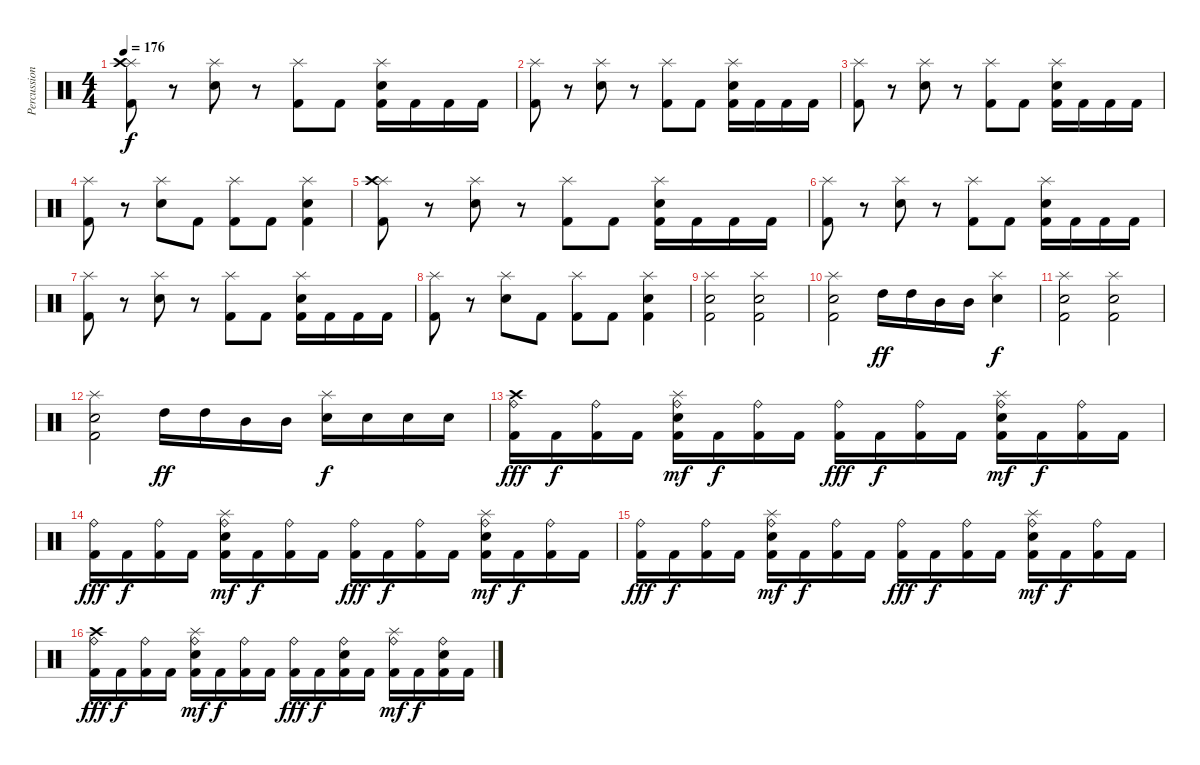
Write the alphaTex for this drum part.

\track ("Percussion" "Percussion") {instrument percussion}
\staff {score}
\articulation defaults
\ts (4 4)
\tempo 176
\clef neutral
\ks c
("Splash (hit)" "Crash high (hit)" "Kick (hit) 2").8{dy f} r.8 ("Splash (hit)" "Snare (hit) 2").8 r.8 ("Splash (hit)" "Kick (hit) 2").8 "Kick (hit) 2".8 ("Splash (hit)" "Snare (hit) 2" "Kick (hit) 2").16 "Kick (hit) 2".16 "Kick (hit) 2".16 "Kick (hit) 2".16 |
("Splash (hit)" "Kick (hit) 2").8 r.8 ("Splash (hit)" "Snare (hit) 2").8 r.8 ("Splash (hit)" "Kick (hit) 2").8 "Kick (hit) 2".8 ("Splash (hit)" "Snare (hit) 2" "Kick (hit) 2").16 "Kick (hit) 2".16 "Kick (hit) 2".16 "Kick (hit) 2".16 |
("Splash (hit)" "Kick (hit) 2").8 r.8 ("Splash (hit)" "Snare (hit) 2").8 r.8 ("Splash (hit)" "Kick (hit) 2").8 "Kick (hit) 2".8 ("Splash (hit)" "Snare (hit) 2" "Kick (hit) 2").16 "Kick (hit) 2".16 "Kick (hit) 2".16 "Kick (hit) 2".16 |
("Splash (hit)" "Kick (hit) 2").8 r.8 ("Splash (hit)" "Snare (hit) 2").8 "Kick (hit) 2".8 ("Splash (hit)" "Kick (hit) 2").8 "Kick (hit) 2".8 ("Splash (hit)" "Snare (hit) 2" "Kick (hit) 2").4 |
("Splash (hit)" "Crash high (hit)" "Kick (hit) 2").8 r.8 ("Splash (hit)" "Snare (hit) 2").8 r.8 ("Splash (hit)" "Kick (hit) 2").8 "Kick (hit) 2".8 ("Splash (hit)" "Snare (hit) 2" "Kick (hit) 2").16 "Kick (hit) 2".16 "Kick (hit) 2".16 "Kick (hit) 2".16 |
("Splash (hit)" "Kick (hit) 2").8 r.8 ("Splash (hit)" "Snare (hit) 2").8 r.8 ("Splash (hit)" "Kick (hit) 2").8 "Kick (hit) 2".8 ("Splash (hit)" "Snare (hit) 2" "Kick (hit) 2").16 "Kick (hit) 2".16 "Kick (hit) 2".16 "Kick (hit) 2".16 |
("Splash (hit)" "Kick (hit) 2").8 r.8 ("Splash (hit)" "Snare (hit) 2").8 r.8 ("Splash (hit)" "Kick (hit) 2").8 "Kick (hit) 2".8 ("Splash (hit)" "Snare (hit) 2" "Kick (hit) 2").16 "Kick (hit) 2".16 "Kick (hit) 2".16 "Kick (hit) 2".16 |
("Splash (hit)" "Kick (hit) 2").8 r.8 ("Splash (hit)" "Snare (hit) 2").8 "Kick (hit) 2".8 ("Splash (hit)" "Kick (hit) 2").8 "Kick (hit) 2".8 ("Splash (hit)" "Snare (hit) 2" "Kick (hit) 2").4 |
("Splash (hit)" "Snare (hit) 2" "Kick (hit) 2").2 ("Splash (hit)" "Snare (hit) 2" "Kick (hit) 2").2 |
("Splash (hit)" "Snare (hit) 2" "Kick (hit) 2").2 "High Tom (hit)".16{dy ff} "High Tom (hit)".16 "Mid Tom (hit)".16 "Mid Tom (hit)".16 ("Splash (hit)" "Electric Snare (hit)").4{dy f} |
("Splash (hit)" "Snare (hit) 2" "Kick (hit) 2").2 ("Splash (hit)" "Snare (hit) 2" "Kick (hit) 2").2 |
("Splash (hit)" "Snare (hit) 2" "Kick (hit) 2").2 "High Tom (hit)".16{dy ff} "High Tom (hit)".16 "Mid Tom (hit)".16 "Mid Tom (hit)".16 ("Splash (hit)" "Electric Snare (hit)").16{dy f} "Electric Snare (hit)".16 "Electric Snare (hit)".16 "Electric Snare (hit)".16 |
("Crash high (hit)" "Ride (bell)" "Kick (hit) 2").16{dy fff} "Kick (hit) 2".16{dy f} ("Ride (bell)" "Kick (hit) 2").16 "Kick (hit) 2".16 ("Splash (hit)" "Ride (bell)" "Snare (hit) 2" "Kick (hit) 2").16{dy mf} "Kick (hit) 2".16{dy f} ("Ride (bell)" "Kick (hit) 2").16 "Kick (hit) 2".16 ("Ride (bell)" "Kick (hit) 2").16{dy fff} "Kick (hit) 2".16{dy f} ("Ride (bell)" "Kick (hit) 2").16 "Kick (hit) 2".16 ("Splash (hit)" "Ride (bell)" "Snare (hit) 2" "Kick (hit) 2").16{dy mf} "Kick (hit) 2".16{dy f} ("Ride (bell)" "Kick (hit) 2").16 "Kick (hit) 2".16 |
("Ride (bell)" "Kick (hit) 2").16{dy fff} "Kick (hit) 2".16{dy f} ("Ride (bell)" "Kick (hit) 2").16 "Kick (hit) 2".16 ("Splash (hit)" "Ride (bell)" "Snare (hit) 2" "Kick (hit) 2").16{dy mf} "Kick (hit) 2".16{dy f} ("Ride (bell)" "Kick (hit) 2").16 "Kick (hit) 2".16 ("Ride (bell)" "Kick (hit) 2").16{dy fff} "Kick (hit) 2".16{dy f} ("Ride (bell)" "Kick (hit) 2").16 "Kick (hit) 2".16 ("Splash (hit)" "Ride (bell)" "Snare (hit) 2" "Kick (hit) 2").16{dy mf} "Kick (hit) 2".16{dy f} ("Ride (bell)" "Kick (hit) 2").16 "Kick (hit) 2".16 |
("Ride (bell)" "Kick (hit) 2").16{dy fff} "Kick (hit) 2".16{dy f} ("Ride (bell)" "Kick (hit) 2").16 "Kick (hit) 2".16 ("Splash (hit)" "Ride (bell)" "Snare (hit) 2" "Kick (hit) 2").16{dy mf} "Kick (hit) 2".16{dy f} ("Ride (bell)" "Kick (hit) 2").16 "Kick (hit) 2".16 ("Ride (bell)" "Kick (hit) 2").16{dy fff} "Kick (hit) 2".16{dy f} ("Ride (bell)" "Kick (hit) 2").16 "Kick (hit) 2".16 ("Splash (hit)" "Ride (bell)" "Snare (hit) 2" "Kick (hit) 2").16{dy mf} "Kick (hit) 2".16{dy f} ("Ride (bell)" "Kick (hit) 2").16 "Kick (hit) 2".16 |
("Crash high (hit)" "Ride (bell)" "Kick (hit) 2").16{dy fff} "Kick (hit) 2".16{dy f} ("Ride (bell)" "Kick (hit) 2").16 "Kick (hit) 2".16 ("Splash (hit)" "Ride (bell)" "Snare (hit) 2" "Kick (hit) 2").16{dy mf} "Kick (hit) 2".16{dy f} ("Ride (bell)" "Kick (hit) 2").16 "Kick (hit) 2".16 ("Ride (bell)" "Kick (hit) 2").16{dy fff} "Kick (hit) 2".16{dy f} ("Ride (bell)" "Snare (hit) 2" "Kick (hit) 2").16 "Kick (hit) 2".16 ("Splash (hit)" "Ride (bell)" "Kick (hit) 2").16{dy mf} "Kick (hit) 2".16{dy f} ("Ride (bell)" "Snare (hit) 2" "Kick (hit) 2").16 "Kick (hit) 2".16
